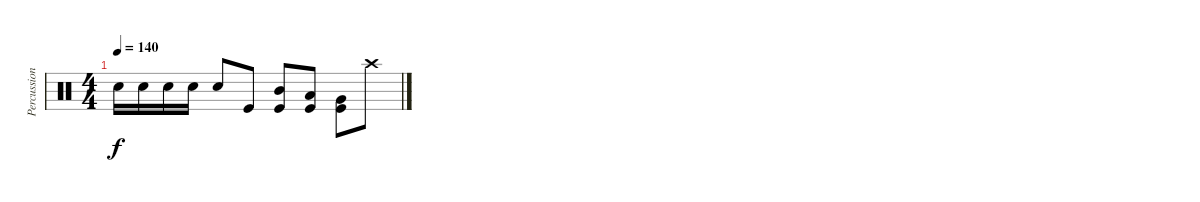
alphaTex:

\track ("Percussion" "Percussion") {instrument percussion}
\staff {score}
\articulation defaults
\ts (4 4)
\tempo 140
\clef neutral
\ks c "Snare (hit) 2".16{dy f} "Snare (hit) 2".16 "Snare (hit) 2".16 "Snare (hit) 2".16 "Snare (hit) 2".8 "Kick (hit)".8
("Mid Tom (hit)" "Kick (hit)").8 ("Low Tom (hit)" "Kick (hit)").8 ("Very Low Tom (hit)" "Kick (hit)").8 "Crash high (hit)".8
